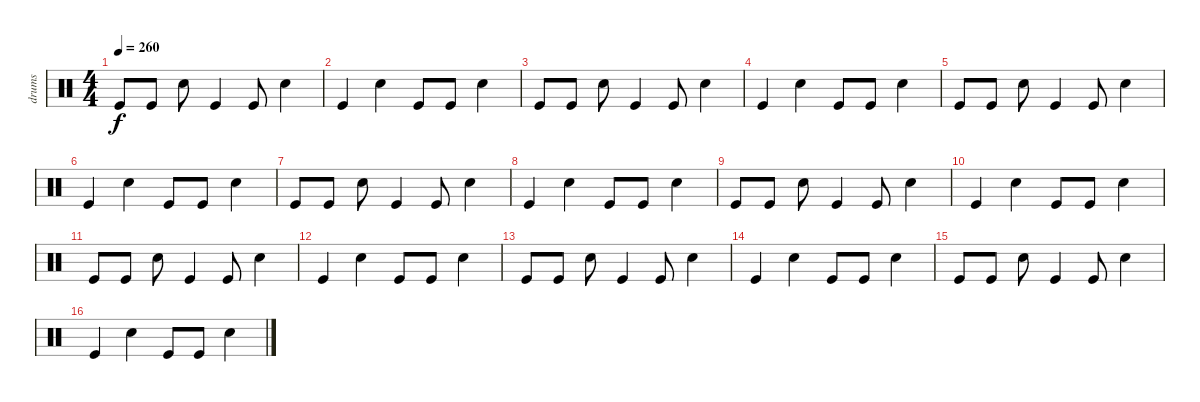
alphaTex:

\track ("drums" "drums") {instrument percussion}
\staff {score}
\articulation defaults
\ts (4 4)
\tempo 260
\clef neutral
\ks c "Kick (hit)".8{dy f} "Kick (hit)".8 "Snare (hit) 2".8 "Kick (hit)".4 "Kick (hit)".8 "Snare (hit) 2".4
|
"Kick (hit)".4 "Snare (hit) 2".4 "Kick (hit)".8 "Kick (hit)".8 "Snare (hit) 2".4 |
"Kick (hit)".8 "Kick (hit)".8 "Snare (hit) 2".8 "Kick (hit)".4 "Kick (hit)".8 "Snare (hit) 2".4 |
"Kick (hit)".4 "Snare (hit) 2".4 "Kick (hit)".8 "Kick (hit)".8 "Snare (hit) 2".4 |
"Kick (hit)".8 "Kick (hit)".8 "Snare (hit) 2".8 "Kick (hit)".4 "Kick (hit)".8 "Snare (hit) 2".4 |
"Kick (hit)".4 "Snare (hit) 2".4 "Kick (hit)".8 "Kick (hit)".8 "Snare (hit) 2".4 |
"Kick (hit)".8 "Kick (hit)".8 "Snare (hit) 2".8 "Kick (hit)".4 "Kick (hit)".8 "Snare (hit) 2".4 |
"Kick (hit)".4 "Snare (hit) 2".4 "Kick (hit)".8 "Kick (hit)".8 "Snare (hit) 2".4 |
"Kick (hit)".8 "Kick (hit)".8 "Snare (hit) 2".8 "Kick (hit)".4 "Kick (hit)".8 "Snare (hit) 2".4 |
"Kick (hit)".4 "Snare (hit) 2".4 "Kick (hit)".8 "Kick (hit)".8 "Snare (hit) 2".4 |
"Kick (hit)".8 "Kick (hit)".8 "Snare (hit) 2".8 "Kick (hit)".4 "Kick (hit)".8 "Snare (hit) 2".4 |
"Kick (hit)".4 "Snare (hit) 2".4 "Kick (hit)".8 "Kick (hit)".8 "Snare (hit) 2".4 |
"Kick (hit)".8 "Kick (hit)".8 "Snare (hit) 2".8 "Kick (hit)".4 "Kick (hit)".8 "Snare (hit) 2".4 |
"Kick (hit)".4 "Snare (hit) 2".4 "Kick (hit)".8 "Kick (hit)".8 "Snare (hit) 2".4 |
"Kick (hit)".8 "Kick (hit)".8 "Snare (hit) 2".8 "Kick (hit)".4 "Kick (hit)".8 "Snare (hit) 2".4 |
"Kick (hit)".4 "Snare (hit) 2".4 "Kick (hit)".8 "Kick (hit)".8 "Snare (hit) 2".4
